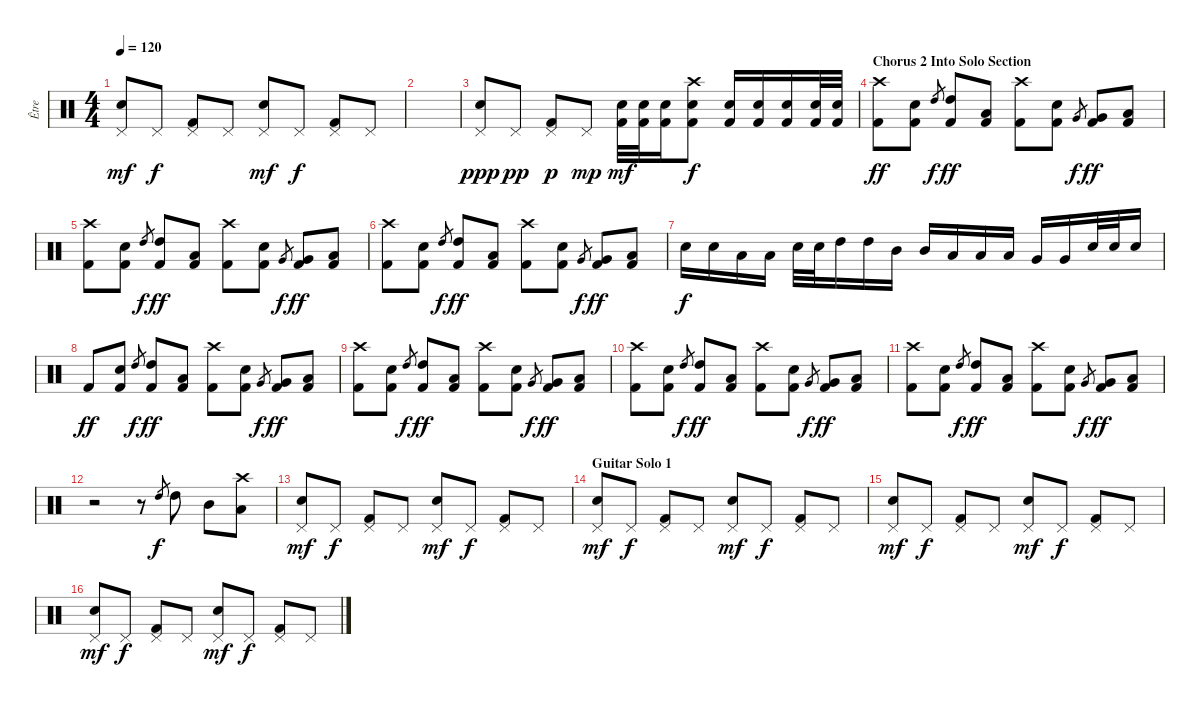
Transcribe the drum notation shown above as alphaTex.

\track ("Être" "Être") {instrument percussion}
\staff {score}
\articulation defaults
\ts (4 4)
\tempo 120
\clef neutral
\ks c
("Pedal Hi-Hat (hit)" "Electric Snare (hit)").8{dy mf} "Pedal Hi-Hat (hit)".8{dy f} ("Kick (hit) 2" "Pedal Hi-Hat (hit)").8 "Pedal Hi-Hat (hit)".8 ("Pedal Hi-Hat (hit)" "Electric Snare (hit)").8{dy mf} "Pedal Hi-Hat (hit)".8{dy f} ("Kick (hit) 2" "Pedal Hi-Hat (hit)").8 "Pedal Hi-Hat (hit)".8 |
|
("Pedal Hi-Hat (hit)" "Electric Snare (hit)").8{dy ppp} "Pedal Hi-Hat (hit)".8{dy pp} ("Kick (hit) 2" "Pedal Hi-Hat (hit)").8{dy p} "Pedal Hi-Hat (hit)".8{dy mp} ("Kick (hit) 2" "Electric Snare (hit)").32{dy mf} ("Kick (hit) 2" "Electric Snare (hit)").32 ("Kick (hit) 2" "Electric Snare (hit)").16 ("Crash high (hit)" "Kick (hit) 2" "Electric Snare (hit)").8{dy f} ("Kick (hit) 2" "Electric Snare (hit)").16 ("Kick (hit) 2" "Electric Snare (hit)").16 ("Kick (hit) 2" "Electric Snare (hit)").16 ("Kick (hit) 2" "Electric Snare (hit)").32 ("Kick (hit) 2" "Electric Snare (hit)").32 |
\section ("" "Chorus 2 Into Solo Section")
("Crash high (hit)" "Kick (hit) 2").8{dy ff} ("Kick (hit) 2" "Electric Snare (hit)").8 "High Tom (hit)".8{gr dy f} ("High Tom (hit)" "Kick (hit) 2").8{dy ff} ("Low Tom (hit)" "Kick (hit) 2").8 ("Crash high (hit)" "Kick (hit) 2").8 ("Kick (hit) 2" "Electric Snare (hit)").8 "Very Low Tom (hit)".8{gr dy f} ("Very Low Tom (hit)" "Kick (hit) 2").8{dy ff} ("Low Floor Tom (hit)" "Kick (hit) 2").8 |
("Crash high (hit)" "Kick (hit) 2").8 ("Kick (hit) 2" "Electric Snare (hit)").8 "High Tom (hit)".8{gr dy f} ("High Tom (hit)" "Kick (hit) 2").8{dy ff} ("Low Tom (hit)" "Kick (hit) 2").8 ("Crash high (hit)" "Kick (hit) 2").8 ("Kick (hit) 2" "Electric Snare (hit)").8 "Very Low Tom (hit)".8{gr dy f} ("Very Low Tom (hit)" "Kick (hit) 2").8{dy ff} ("Low Floor Tom (hit)" "Kick (hit) 2").8 |
("Crash high (hit)" "Kick (hit) 2").8 ("Kick (hit) 2" "Electric Snare (hit)").8 "High Tom (hit)".8{gr dy f} ("High Tom (hit)" "Kick (hit) 2").8{dy ff} ("Low Tom (hit)" "Kick (hit) 2").8 ("Crash high (hit)" "Kick (hit) 2").8 ("Kick (hit) 2" "Electric Snare (hit)").8 "Very Low Tom (hit)".8{gr dy f} ("Very Low Tom (hit)" "Kick (hit) 2").8{dy ff} ("Low Floor Tom (hit)" "Kick (hit) 2").8 |
"Electric Snare (hit)".16{dy f} "Electric Snare (hit)".16 "Low Tom (hit)".16 "Low Tom (hit)".16 "Electric Snare (hit)".32 "Electric Snare (hit)".32 "High Tom (hit)".16 "High Tom (hit)".16 "Mid Tom (hit)".16 "Mid Tom (hit)".16 "Low Tom (hit)".16 "Low Tom (hit)".16 "Low Tom (hit)".16 "Very Low Tom (hit)".16 "Very Low Tom (hit)".16 "Electric Snare (hit)".32 "Electric Snare (hit)".32 "Electric Snare (hit)".16 |
"Kick (hit) 2".8{dy ff} ("Kick (hit) 2" "Electric Snare (hit)").8 "High Tom (hit)".8{gr dy f} ("High Tom (hit)" "Kick (hit) 2").8{dy ff} ("Low Tom (hit)" "Kick (hit) 2").8 ("Crash high (hit)" "Kick (hit) 2").8 ("Kick (hit) 2" "Electric Snare (hit)").8 "Very Low Tom (hit)".8{gr dy f} ("Very Low Tom (hit)" "Kick (hit) 2").8{dy ff} ("Low Floor Tom (hit)" "Kick (hit) 2").8 |
("Crash high (hit)" "Kick (hit) 2").8 ("Kick (hit) 2" "Electric Snare (hit)").8 "High Tom (hit)".8{gr dy f} ("High Tom (hit)" "Kick (hit) 2").8{dy ff} ("Low Tom (hit)" "Kick (hit) 2").8 ("Crash high (hit)" "Kick (hit) 2").8 ("Kick (hit) 2" "Electric Snare (hit)").8 "Very Low Tom (hit)".8{gr dy f} ("Very Low Tom (hit)" "Kick (hit) 2").8{dy ff} ("Low Floor Tom (hit)" "Kick (hit) 2").8 |
("Crash high (hit)" "Kick (hit) 2").8 ("Kick (hit) 2" "Electric Snare (hit)").8 "High Tom (hit)".8{gr dy f} ("High Tom (hit)" "Kick (hit) 2").8{dy ff} ("Low Tom (hit)" "Kick (hit) 2").8 ("Crash high (hit)" "Kick (hit) 2").8 ("Kick (hit) 2" "Electric Snare (hit)").8 "Very Low Tom (hit)".8{gr dy f} ("Very Low Tom (hit)" "Kick (hit) 2").8{dy ff} ("Low Floor Tom (hit)" "Kick (hit) 2").8 |
("Crash high (hit)" "Kick (hit) 2").8 ("Kick (hit) 2" "Electric Snare (hit)").8 "High Tom (hit)".8{gr dy f} ("High Tom (hit)" "Kick (hit) 2").8{dy ff} ("Low Tom (hit)" "Kick (hit) 2").8 ("Crash high (hit)" "Kick (hit) 2").8 ("Kick (hit) 2" "Electric Snare (hit)").8 "Very Low Tom (hit)".8{gr dy f} ("Very Low Tom (hit)" "Kick (hit) 2").8{dy ff} ("Low Floor Tom (hit)" "Kick (hit) 2").8 |
r.2 r.8 "High Tom (hit)".8{gr dy f} "High Tom (hit)".8 "Mid Tom (hit)".8 ("Crash high (hit)" "Low Tom (hit)").8 |
\section ("" "")
("Pedal Hi-Hat (hit)" "Electric Snare (hit)").8{dy mf} "Pedal Hi-Hat (hit)".8{dy f} ("Kick (hit) 2" "Pedal Hi-Hat (hit)").8 "Pedal Hi-Hat (hit)".8 ("Pedal Hi-Hat (hit)" "Electric Snare (hit)").8{dy mf} "Pedal Hi-Hat (hit)".8{dy f} ("Kick (hit) 2" "Pedal Hi-Hat (hit)").8 "Pedal Hi-Hat (hit)".8 |
\section ("" "Guitar Solo 1")
("Pedal Hi-Hat (hit)" "Electric Snare (hit)").8{dy mf} "Pedal Hi-Hat (hit)".8{dy f} ("Kick (hit) 2" "Pedal Hi-Hat (hit)").8 "Pedal Hi-Hat (hit)".8 ("Pedal Hi-Hat (hit)" "Electric Snare (hit)").8{dy mf} "Pedal Hi-Hat (hit)".8{dy f} ("Kick (hit) 2" "Pedal Hi-Hat (hit)").8 "Pedal Hi-Hat (hit)".8 |
("Pedal Hi-Hat (hit)" "Electric Snare (hit)").8{dy mf} "Pedal Hi-Hat (hit)".8{dy f} ("Kick (hit) 2" "Pedal Hi-Hat (hit)").8 "Pedal Hi-Hat (hit)".8 ("Pedal Hi-Hat (hit)" "Electric Snare (hit)").8{dy mf} "Pedal Hi-Hat (hit)".8{dy f} ("Kick (hit) 2" "Pedal Hi-Hat (hit)").8 "Pedal Hi-Hat (hit)".8 |
("Pedal Hi-Hat (hit)" "Electric Snare (hit)").8{dy mf} "Pedal Hi-Hat (hit)".8{dy f} ("Kick (hit) 2" "Pedal Hi-Hat (hit)").8 "Pedal Hi-Hat (hit)".8 ("Pedal Hi-Hat (hit)" "Electric Snare (hit)").8{dy mf} "Pedal Hi-Hat (hit)".8{dy f} ("Kick (hit) 2" "Pedal Hi-Hat (hit)").8 "Pedal Hi-Hat (hit)".8
